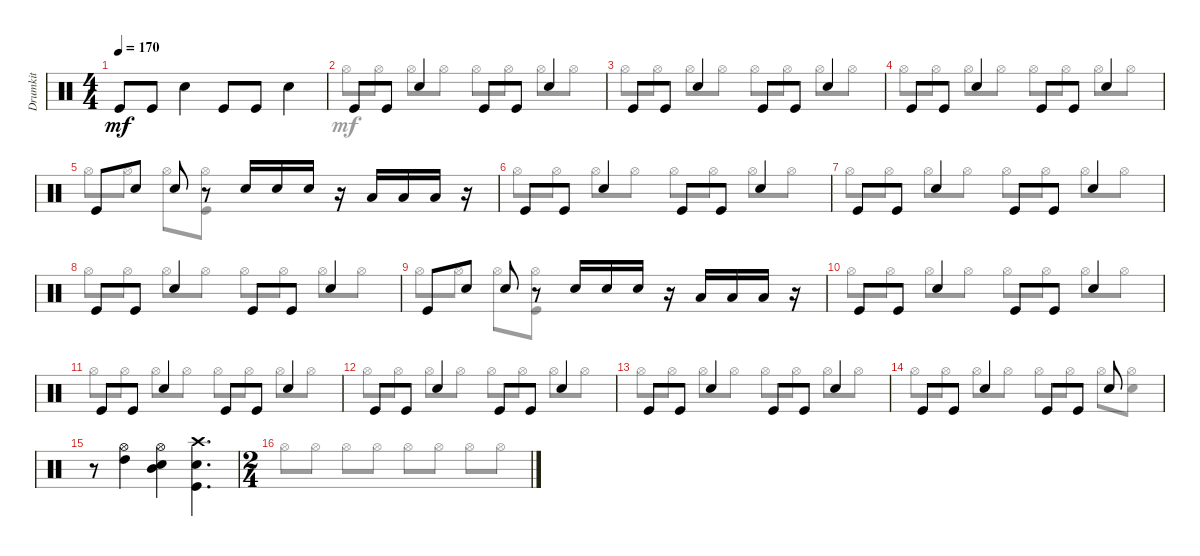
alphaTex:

\track ("Drumkit" "Drumkit") {instrument percussion}
\staff {score}
\articulation defaults
\voice
\ts (4 4)
\tempo 170
\clef neutral
\ks c "Kick (hit)".8{dy mf} "Kick (hit)".8 "Snare (hit) 2".4 "Kick (hit)".8 "Kick (hit)".8 "Snare (hit) 2".4
|
"Kick (hit)".8 "Kick (hit)".8 "Snare (hit) 2".4 "Kick (hit)".8 "Kick (hit)".8 "Snare (hit) 2".4 |
"Kick (hit)".8 "Kick (hit)".8 "Snare (hit) 2".4 "Kick (hit)".8 "Kick (hit)".8 "Snare (hit) 2".4 |
"Kick (hit)".8 "Kick (hit)".8 "Snare (hit) 2".4 "Kick (hit)".8 "Kick (hit)".8 "Snare (hit) 2".4 |
"Kick (hit)".8 "Snare (hit) 2".8 "Snare (hit) 2".8 r.8 "Snare (hit) 2".16 "Snare (hit) 2".16 "Snare (hit) 2".16 r.16 "Low Tom (hit)".16 "Low Tom (hit)".16 "Low Tom (hit)".16 r.16 |
"Kick (hit)".8 "Kick (hit)".8 "Snare (hit) 2".4 "Kick (hit)".8 "Kick (hit)".8 "Snare (hit) 2".4 |
"Kick (hit)".8 "Kick (hit)".8 "Snare (hit) 2".4 "Kick (hit)".8 "Kick (hit)".8 "Snare (hit) 2".4 |
"Kick (hit)".8 "Kick (hit)".8 "Snare (hit) 2".4 "Kick (hit)".8 "Kick (hit)".8 "Snare (hit) 2".4 |
"Kick (hit)".8 "Snare (hit) 2".8 "Snare (hit) 2".8 r.8 "Snare (hit) 2".16 "Snare (hit) 2".16 "Snare (hit) 2".16 r.16 "Low Tom (hit)".16 "Low Tom (hit)".16 "Low Tom (hit)".16 r.16 |
"Kick (hit)".8 "Kick (hit)".8 "Snare (hit) 2".4 "Kick (hit)".8 "Kick (hit)".8 "Snare (hit) 2".4 |
"Kick (hit)".8 "Kick (hit)".8 "Snare (hit) 2".4 "Kick (hit)".8 "Kick (hit)".8 "Snare (hit) 2".4 |
"Kick (hit)".8 "Kick (hit)".8 "Snare (hit) 2".4 "Kick (hit)".8 "Kick (hit)".8 "Snare (hit) 2".4 |
"Kick (hit)".8 "Kick (hit)".8 "Snare (hit) 2".4 "Kick (hit)".8 "Kick (hit)".8 "Snare (hit) 2".4 |
"Kick (hit)".8 "Kick (hit)".8 "Snare (hit) 2".4 "Kick (hit)".8 "Kick (hit)".8 "Snare (hit) 2".8 |
r.8 ("High Tom (hit)" "Hi-Hat (open)").4 ("Mid Tom (hit)" "Snare (hit) 2" "Hi-Hat (open)").4 ("Kick (hit)" "Snare (hit) 2" "Crash high (hit)").4{d} |
\ts (2 4)
\voice
\clef neutral
\ottava regular
\simile none
\ks c "Hi-Hat (open)".8{dy mf} "Hi-Hat (open)".8 "Hi-Hat (open)".8 "Hi-Hat (open)".8 "Hi-Hat (open)".8 "Hi-Hat (open)".8 "Hi-Hat (open)".8 "Hi-Hat (open)".8
|
"Hi-Hat (open)".8 "Hi-Hat (open)".8 "Hi-Hat (open)".8 "Hi-Hat (open)".8 "Hi-Hat (open)".8 "Hi-Hat (open)".8 "Hi-Hat (open)".8 "Hi-Hat (open)".8 |
"Hi-Hat (open)".8 "Hi-Hat (open)".8 "Hi-Hat (open)".8 "Hi-Hat (open)".8 "Hi-Hat (open)".8 "Hi-Hat (open)".8 "Hi-Hat (open)".8 "Hi-Hat (open)".8 |
"Hi-Hat (open)".8 "Hi-Hat (open)".8 "Hi-Hat (open)".8 "Hi-Hat (open)".8 "Hi-Hat (open)".8 "Hi-Hat (open)".8 "Hi-Hat (open)".8 "Hi-Hat (open)".8 |
"Hi-Hat (open)".8 "Hi-Hat (open)".8 "Hi-Hat (open)".8 ("Hi-Hat (open)" "Kick (hit)").8 |
"Hi-Hat (open)".8 "Hi-Hat (open)".8 "Hi-Hat (open)".8 "Hi-Hat (open)".8 "Hi-Hat (open)".8 "Hi-Hat (open)".8 "Hi-Hat (open)".8 "Hi-Hat (open)".8 |
"Hi-Hat (open)".8 "Hi-Hat (open)".8 "Hi-Hat (open)".8 "Hi-Hat (open)".8 "Hi-Hat (open)".8 "Hi-Hat (open)".8 "Hi-Hat (open)".8 "Hi-Hat (open)".8 |
"Hi-Hat (open)".8 "Hi-Hat (open)".8 "Hi-Hat (open)".8 "Hi-Hat (open)".8 "Hi-Hat (open)".8 "Hi-Hat (open)".8 "Hi-Hat (open)".8 "Hi-Hat (open)".8 |
"Hi-Hat (open)".8 "Hi-Hat (open)".8 "Hi-Hat (open)".8 ("Hi-Hat (open)" "Kick (hit)").8 |
"Hi-Hat (open)".8 "Hi-Hat (open)".8 "Hi-Hat (open)".8 "Hi-Hat (open)".8 "Hi-Hat (open)".8 "Hi-Hat (open)".8 "Hi-Hat (open)".8 "Hi-Hat (open)".8 |
"Hi-Hat (open)".8 "Hi-Hat (open)".8 "Hi-Hat (open)".8 "Hi-Hat (open)".8 "Hi-Hat (open)".8 "Hi-Hat (open)".8 "Hi-Hat (open)".8 "Hi-Hat (open)".8 |
"Hi-Hat (open)".8 "Hi-Hat (open)".8 "Hi-Hat (open)".8 "Hi-Hat (open)".8 "Hi-Hat (open)".8 "Hi-Hat (open)".8 "Hi-Hat (open)".8 "Hi-Hat (open)".8 |
"Hi-Hat (open)".8 "Hi-Hat (open)".8 "Hi-Hat (open)".8 "Hi-Hat (open)".8 "Hi-Hat (open)".8 "Hi-Hat (open)".8 "Hi-Hat (open)".8 "Hi-Hat (open)".8 |
"Hi-Hat (open)".8 "Hi-Hat (open)".8 "Hi-Hat (open)".8 "Hi-Hat (open)".8 "Hi-Hat (open)".8 "Hi-Hat (open)".8 "Hi-Hat (open)".8 ("Hi-Hat (open)" "Snare (hit) 2").8 |
|
